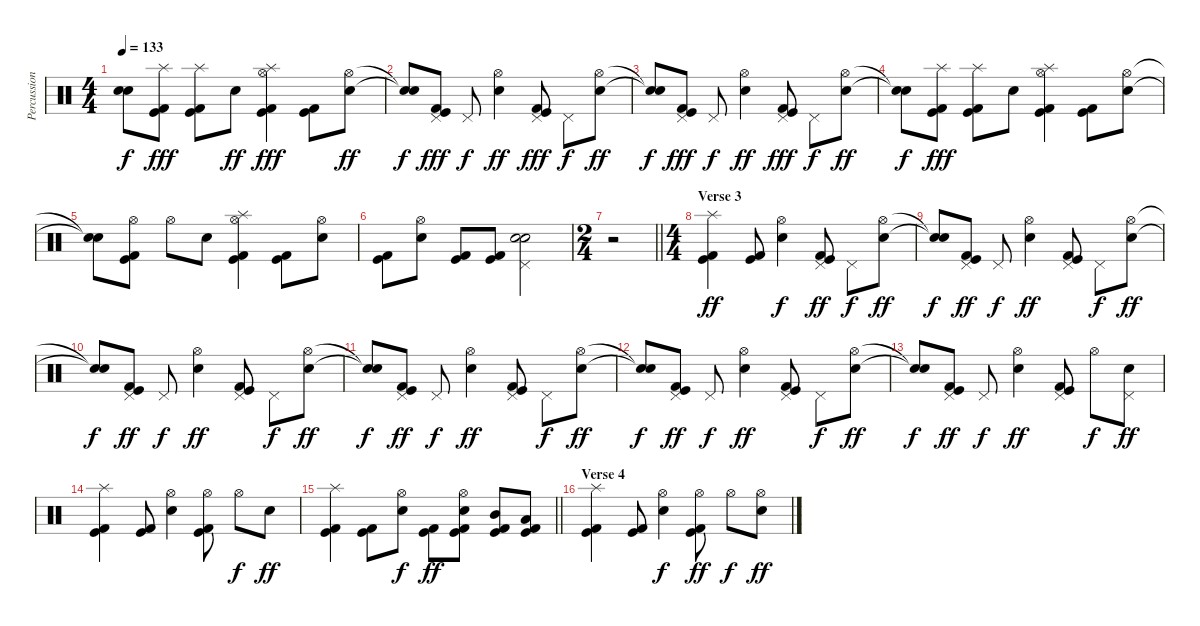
\track ("Percussion" "Percussion") {instrument percussion}
\staff {score}
\articulation defaults
\ts (4 4)
\tempo 133
\clef neutral
\ks c
("Snare (hit)"{t} "Snare (hit)"{t}).8{dy f} ("Splash (hit)" "Kick (hit)" "Kick (hit) 2").8{dy fff} ("Splash (hit)" "Kick (hit)" "Kick (hit) 2").8 "Snare (hit) 2".8{dy ff} ("Splash (hit)" "Hi-Hat (open)" "Kick (hit)" "Kick (hit) 2").4{dy fff} ("Kick (hit)" "Kick (hit) 2").8 ("Hi-Hat (open)" "Snare (hit) 2").8{dy ff} |
("Snare (hit)"{t} "Snare (hit)"{t}).8{dy f} ("Pedal Hi-Hat (hit)" "Kick (hit)" "Kick (hit) 2").8{dy fff} "Pedal Hi-Hat (hit)".8{dy f} ("Hi-Hat (open)" "Snare (hit) 2").4{dy ff} ("Pedal Hi-Hat (hit)" "Kick (hit)" "Kick (hit) 2").8{dy fff} "Pedal Hi-Hat (hit)".8{dy f} ("Hi-Hat (open)" "Snare (hit) 2").8{dy ff} |
("Snare (hit)"{t} "Snare (hit)"{t}).8{dy f} ("Pedal Hi-Hat (hit)" "Kick (hit)" "Kick (hit) 2").8{dy fff} "Pedal Hi-Hat (hit)".8{dy f} ("Hi-Hat (open)" "Snare (hit) 2").4{dy ff} ("Pedal Hi-Hat (hit)" "Kick (hit)" "Kick (hit) 2").8{dy fff} "Pedal Hi-Hat (hit)".8{dy f} ("Hi-Hat (open)" "Snare (hit) 2").8{dy ff} |
("Snare (hit)"{t} "Snare (hit)"{t}).8{dy f} ("Splash (hit)" "Kick (hit)" "Kick (hit) 2").8{dy fff} ("Splash (hit)" "Kick (hit)" "Kick (hit) 2").8 "Snare (hit) 2".8 ("Splash (hit)" "Hi-Hat (open)" "Kick (hit)" "Kick (hit) 2").4 ("Kick (hit)" "Kick (hit) 2").8 ("Hi-Hat (open)" "Snare (hit) 2").8 |
("Snare (hit)"{t} "Snare (hit)"{t}).8 ("Hi-Hat (open)" "Kick (hit)" "Kick (hit) 2").8 "Hi-Hat (open)".8 "Snare (hit) 2".8 ("Splash (hit)" "Hi-Hat (open)" "Kick (hit)" "Kick (hit) 2").4 ("Kick (hit)" "Kick (hit) 2").8 ("Hi-Hat (open)" "Snare (hit) 2").8 |
("Kick (hit)" "Kick (hit) 2").8 ("Hi-Hat (open)" "Snare (hit) 2").8 ("Kick (hit)" "Kick (hit) 2").8 ("Kick (hit)" "Kick (hit) 2").8 ("Pedal Hi-Hat (hit)" "Snare (hit) 2" "Electric Snare (hit)").2{bd 60} |
\ts (2 4)
\barLineRight lightlight
r.2 |
\ts (4 4)
\section ("" "Verse 3")
("Splash (hit)" "Kick (hit)" "Kick (hit) 2").4{dy ff} ("Kick (hit)" "Kick (hit) 2").8 ("Hi-Hat (open)" "Snare (hit) 2").4{dy f} ("Pedal Hi-Hat (hit)" "Kick (hit)" "Kick (hit) 2").8{dy ff} "Pedal Hi-Hat (hit)".8{dy f} ("Hi-Hat (open)" "Snare (hit) 2").8{dy ff} |
("Snare (hit)"{t} "Snare (hit)"{t}).8{dy f} ("Pedal Hi-Hat (hit)" "Kick (hit)" "Kick (hit) 2").8{dy ff} "Pedal Hi-Hat (hit)".8{dy f} ("Hi-Hat (open)" "Snare (hit) 2").4{dy ff} ("Pedal Hi-Hat (hit)" "Kick (hit)" "Kick (hit) 2").8 "Pedal Hi-Hat (hit)".8{dy f} ("Hi-Hat (open)" "Snare (hit) 2").8{dy ff} |
("Snare (hit)"{t} "Snare (hit)"{t}).8{dy f} ("Pedal Hi-Hat (hit)" "Kick (hit)" "Kick (hit) 2").8{dy ff} "Pedal Hi-Hat (hit)".8{dy f} ("Hi-Hat (open)" "Snare (hit) 2").4{dy ff} ("Pedal Hi-Hat (hit)" "Kick (hit)" "Kick (hit) 2").8 "Pedal Hi-Hat (hit)".8{dy f} ("Hi-Hat (open)" "Snare (hit) 2").8{dy ff} |
("Snare (hit)"{t} "Snare (hit)"{t}).8{dy f} ("Pedal Hi-Hat (hit)" "Kick (hit)" "Kick (hit) 2").8{dy ff} "Pedal Hi-Hat (hit)".8{dy f} ("Hi-Hat (open)" "Snare (hit) 2").4{dy ff} ("Pedal Hi-Hat (hit)" "Kick (hit)" "Kick (hit) 2").8 "Pedal Hi-Hat (hit)".8{dy f} ("Hi-Hat (open)" "Snare (hit) 2").8{dy ff} |
("Snare (hit)"{t} "Snare (hit)"{t}).8{dy f} ("Pedal Hi-Hat (hit)" "Kick (hit)" "Kick (hit) 2").8{dy ff} "Pedal Hi-Hat (hit)".8{dy f} ("Hi-Hat (open)" "Snare (hit) 2").4{dy ff} ("Pedal Hi-Hat (hit)" "Kick (hit)" "Kick (hit) 2").8 "Pedal Hi-Hat (hit)".8{dy f} ("Hi-Hat (open)" "Snare (hit) 2").8{dy ff} |
("Snare (hit)"{t} "Snare (hit)"{t}).8{dy f} ("Pedal Hi-Hat (hit)" "Kick (hit)" "Kick (hit) 2").8{dy ff} "Pedal Hi-Hat (hit)".8{dy f} ("Hi-Hat (open)" "Snare (hit) 2").4{dy ff} ("Pedal Hi-Hat (hit)" "Kick (hit)" "Kick (hit) 2").8 "Hi-Hat (open)".8{dy f} ("Pedal Hi-Hat (hit)" "Snare (hit) 2").8{dy ff} |
("Splash (hit)" "Kick (hit)" "Kick (hit) 2").4 ("Kick (hit)" "Kick (hit) 2").8 ("Hi-Hat (open)" "Snare (hit) 2").4 ("Hi-Hat (open)" "Kick (hit)" "Kick (hit) 2").8 "Hi-Hat (open)".8{dy f} "Snare (hit) 2".8{dy ff} |
\barLineRight lightlight
("Splash (hit)" "Kick (hit)" "Kick (hit) 2").4 ("Kick (hit)" "Kick (hit) 2").8 ("Hi-Hat (open)" "Snare (hit) 2").8{dy f} ("Kick (hit)" "Kick (hit) 2").8{dy ff} ("Hi-Hat (open)" "Snare (hit) 2" "Kick (hit)" "Kick (hit) 2").8 ("Mid Tom (hit)" "Kick (hit)" "Kick (hit) 2").8 ("Low Tom (hit)" "Kick (hit)" "Kick (hit) 2").8 |
\section ("" "Verse 4")
("Splash (hit)" "Kick (hit)" "Kick (hit) 2").4 ("Kick (hit)" "Kick (hit) 2").8 ("Hi-Hat (open)" "Snare (hit) 2").4{dy f} ("Hi-Hat (open)" "Kick (hit)" "Kick (hit) 2").8{dy ff} "Hi-Hat (open)".8{dy f} ("Hi-Hat (open)" "Snare (hit) 2").8{dy ff}
